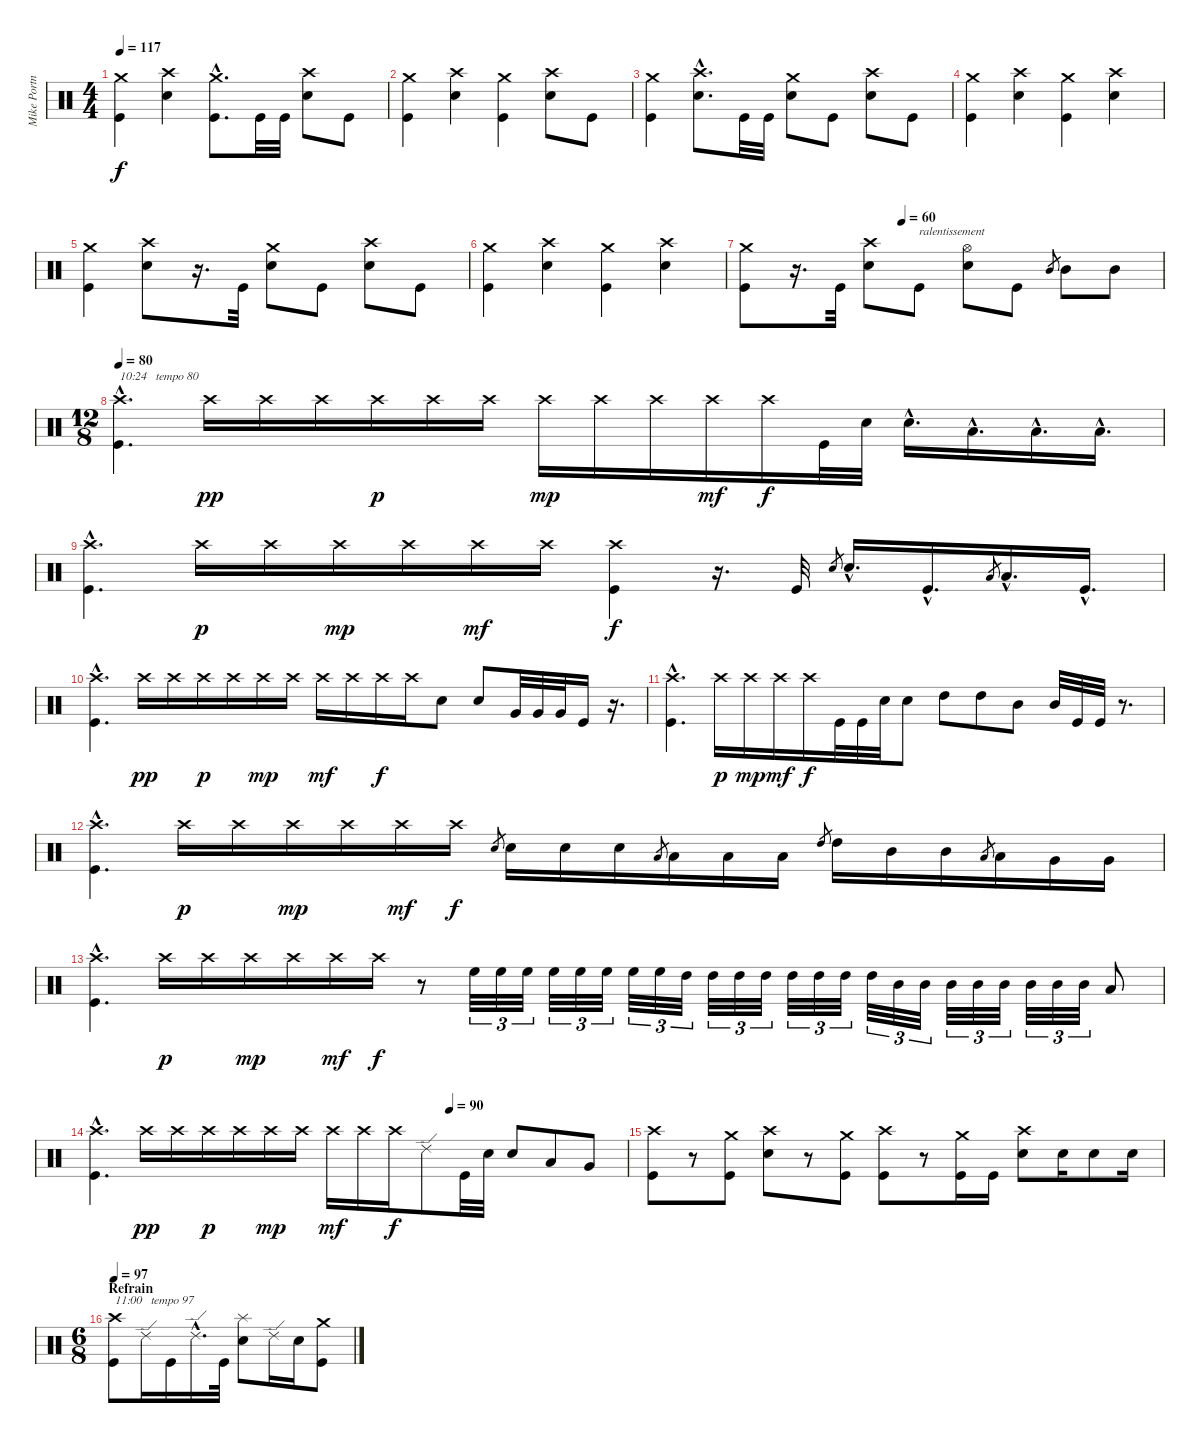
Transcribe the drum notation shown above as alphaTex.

\track ("Mike Portnoy" "Mike Portn") {instrument percussion}
\staff {score}
\articulation defaults
\ts (4 4)
\tempo 117
\clef neutral
\ks c
("Crash medium (hit)" "Kick (hit)").4{dy f} ("Crash high (hit)" "Snare (hit) 2").4 ("Crash medium (hit)"{hac} "Kick (hit)"{hac}).8{d} "Kick (hit)".32 "Kick (hit)".32 ("Crash high (hit)" "Snare (hit) 2").8 "Kick (hit)".8 |
("Crash medium (hit)" "Kick (hit)").4 ("Crash high (hit)" "Snare (hit) 2").4 ("Crash medium (hit)" "Kick (hit)").4 ("Crash high (hit)" "Snare (hit) 2").8 "Kick (hit)".8 |
("Crash medium (hit)" "Kick (hit)").4 ("Crash high (hit)"{hac} "Snare (hit) 2"{hac}).8{d} "Kick (hit)".32 "Kick (hit)".32 ("Crash medium (hit)" "Snare (hit) 2").8 "Kick (hit)".8 ("Crash high (hit)" "Snare (hit) 2").8 "Kick (hit)".8 |
("Crash medium (hit)" "Kick (hit)").4 ("Crash high (hit)" "Snare (hit) 2").4 ("Crash medium (hit)" "Kick (hit)").4 ("Crash high (hit)" "Snare (hit) 2").4 |
("Crash medium (hit)" "Kick (hit)").4 ("Crash high (hit)" "Snare (hit) 2").8 r.16{d} "Kick (hit)".32 ("Crash medium (hit)" "Snare (hit) 2").8 "Kick (hit)".8 ("Crash high (hit)" "Snare (hit) 2").8 "Kick (hit)".8 |
("Crash medium (hit)" "Kick (hit)").4 ("Crash high (hit)" "Snare (hit) 2").4 ("Crash medium (hit)" "Kick (hit)").4 ("Crash high (hit)" "Snare (hit) 2").4 |
\tempo (60 0.375)
("Crash medium (hit)" "Kick (hit)").8 r.16{d} "Kick (hit)".32 ("Crash high (hit)" "Snare (hit) 2").8 "Kick (hit)".8{txt "ralentissement"} ("Hi-Hat (open)" "Snare (hit) 2").8 "Kick (hit)".8 "Mid Tom (hit)".8{gr} "Mid Tom (hit)".8 "Mid Tom (hit)".8 |
\ts (12 8)
\section ("" "")
\tempo 80
("Crash high (hit)"{hac} "Kick (hit)"{hac}).4{d txt "10:24   tempo 80"} "Crash high (hit)".16{dy pp} "Crash high (hit)".16 "Crash high (hit)".16 "Crash high (hit)".16{dy p} "Crash high (hit)".16 "Crash high (hit)".16 "Crash high (hit)".16{dy mp} "Crash high (hit)".16 "Crash high (hit)".16 "Crash high (hit)".16{dy mf} "Crash high (hit)".16{dy f} "Kick (hit)".32 "Snare (hit) 2".32 "Snare (hit) 2"{hac}.16{d} "Low Tom (hit)"{hac}.16{d} "Low Tom (hit)"{hac}.16{d} "Low Tom (hit)"{hac}.16{d} |
("Crash high (hit)"{hac} "Kick (hit)"{hac}).4{d} "Crash high (hit)".16{dy p} "Crash high (hit)".16 "Crash high (hit)".16{dy mp} "Crash high (hit)".16 "Crash high (hit)".16{dy mf} "Crash high (hit)".16 ("Crash high (hit)" "Kick (hit)").4{dy f} r.16{d} "Kick (hit)".32 "Snare (hit) 2".8{gr} "Snare (hit) 2"{hac}.16{d} "Kick (hit)"{hac}.16{d} "Low Tom (hit)".8{gr} "Low Tom (hit)"{hac}.16{d} "Kick (hit)"{hac}.16{d} |
("Crash high (hit)"{hac} "Kick (hit)"{hac}).4{d} "Crash high (hit)".16{dy pp} "Crash high (hit)".16 "Crash high (hit)".16{dy p} "Crash high (hit)".16 "Crash high (hit)".16{dy mp} "Crash high (hit)".16 "Crash high (hit)".16{dy mf} "Crash high (hit)".16 "Crash high (hit)".16{dy f} "Crash high (hit)".16 "Snare (hit) 2".8 "Snare (hit) 2".8 "Very Low Tom (hit)".32 "Very Low Tom (hit)".32 "Very Low Tom (hit)".32 "Kick (hit)".16 r.16{d} |
("Crash high (hit)"{hac} "Kick (hit)"{hac}).4{d} "Crash high (hit)".16{dy p} "Crash high (hit)".16{dy mp} "Crash high (hit)".16{dy mf} "Crash high (hit)".16{dy f} "Kick (hit)".32 "Kick (hit)".32 "Snare (hit) 2".32 "Snare (hit) 2".8 "High Tom (hit)".8 "High Tom (hit)".8 "Mid Tom (hit)".8 "Mid Tom (hit)".32 "Kick (hit)".32 "Kick (hit)".32 r.8{d} |
("Crash high (hit)"{hac} "Kick (hit)"{hac}).4{d} "Crash high (hit)".16{dy p} "Crash high (hit)".16 "Crash high (hit)".16{dy mp} "Crash high (hit)".16 "Crash high (hit)".16{dy mf} "Crash high (hit)".16{dy f} "Snare (hit) 2".8{gr} "Snare (hit) 2".16 "Snare (hit) 2".16 "Snare (hit) 2".16 "Low Tom (hit)".8{gr} "Low Tom (hit)".16 "Low Tom (hit)".16 "Low Tom (hit)".16 "High Tom (hit)".8{gr} "High Tom (hit)".16 "Mid Tom (hit)".16 "Mid Tom (hit)".16 "Low Tom (hit)".8{gr} "Low Tom (hit)".16 "Very Low Tom (hit)".16 "Very Low Tom (hit)".16 |
("Crash high (hit)"{hac} "Kick (hit)"{hac}).4{d} "Crash high (hit)".16{dy p} "Crash high (hit)".16 "Crash high (hit)".16{dy mp} "Crash high (hit)".16 "Crash high (hit)".16{dy mf} "Crash high (hit)".16{dy f} r.8 "High Floor Tom (hit)".32{tu (3 2)} "High Floor Tom (hit)".32{tu (3 2)} "High Floor Tom (hit)".32{tu (3 2)} "High Floor Tom (hit)".32{tu (3 2)} "High Floor Tom (hit)".32{tu (3 2)} "High Floor Tom (hit)".32{tu (3 2)} "High Floor Tom (hit)".32{tu (3 2)} "High Floor Tom (hit)".32{tu (3 2)} "High Tom (hit)".32{tu (3 2)} "High Tom (hit)".32{tu (3 2)} "High Tom (hit)".32{tu (3 2)} "High Tom (hit)".32{tu (3 2)} "High Tom (hit)".32{tu (3 2)} "High Tom (hit)".32{tu (3 2)} "High Tom (hit)".32{tu (3 2)} "High Tom (hit)".32{tu (3 2)} "Mid Tom (hit)".32{tu (3 2)} "Mid Tom (hit)".32{tu (3 2)} "Mid Tom (hit)".32{tu (3 2)} "Mid Tom (hit)".32{tu (3 2)} "Mid Tom (hit)".32{tu (3 2)} "Mid Tom (hit)".32{tu (3 2)} "Mid Tom (hit)".32{tu (3 2)} "Mid Tom (hit)".32{tu (3 2)} "Low Tom (hit)".8 |
\tempo (90 0.6666666666666666)
("Crash high (hit)"{hac} "Kick (hit)"{hac}).4{d} "Crash high (hit)".16{dy pp} "Crash high (hit)".16 "Crash high (hit)".16{dy p} "Crash high (hit)".16 "Crash high (hit)".16{dy mp} "Crash high (hit)".16 "Crash high (hit)".16{dy mf} "Crash high (hit)".16 "Crash high (hit)".16{dy f} "Ride (edge) 2".8 "Kick (hit)".32 "Snare (hit) 2".32 "Snare (hit) 2".8 "Low Tom (hit)".8 "Very Low Tom (hit)".8 |
("Crash high (hit)" "Kick (hit)").8 r.8 ("Crash medium (hit)" "Kick (hit)").8 ("Crash high (hit)" "Snare (hit) 2").8 r.8 ("Crash medium (hit)" "Kick (hit)").8 ("Crash high (hit)" "Kick (hit)").8 r.8 ("Crash medium (hit)" "Kick (hit)").16 "Kick (hit)".16 ("Crash high (hit)" "Snare (hit) 2").8 "Snare (hit) 2".16 "Snare (hit) 2".8 "Snare (hit) 2".16 |
\ts (6 8)
\section ("" "Refrain")
\tempo 97
("Crash high (hit)" "Kick (hit)").8{txt "11:00   tempo 97"} "Ride (edge) 2".16 "Kick (hit)".16 "Ride (edge) 2"{hac}.16{d} "Kick (hit)".32 ("Splash (hit)" "Snare (hit) 2").8 "Ride (edge) 2".16 "Snare (hit) 2".16 ("Crash medium (hit)" "Kick (hit)").8
